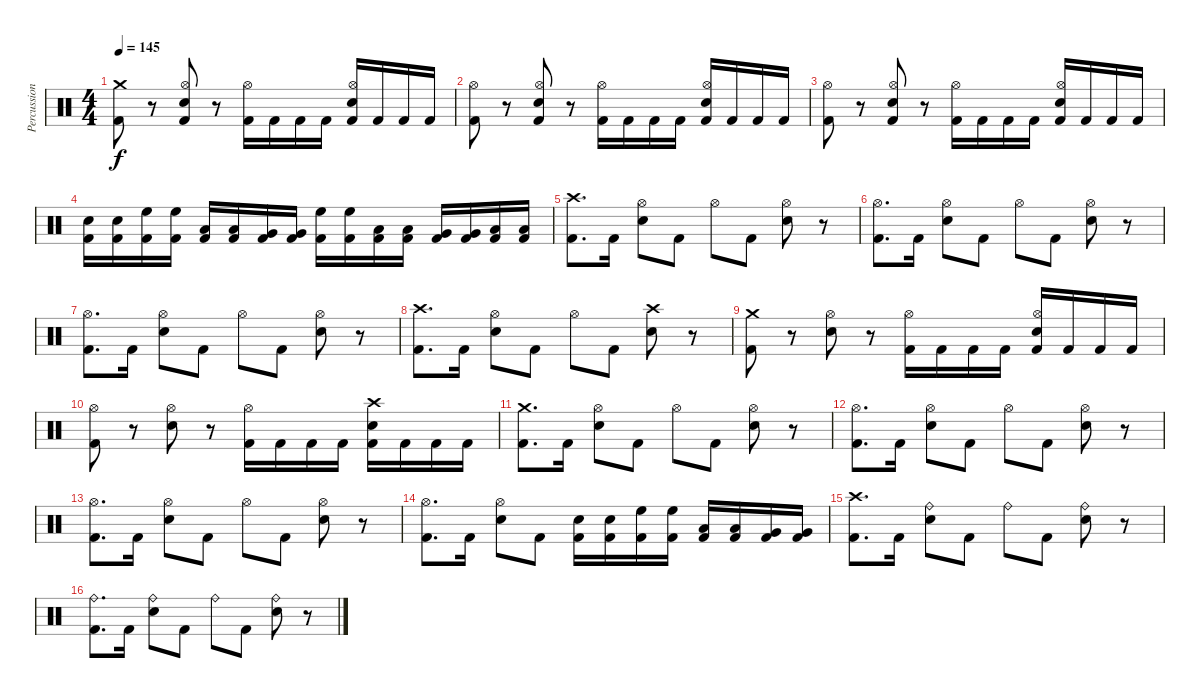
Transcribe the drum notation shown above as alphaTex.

\track ("Percussion" "Percussion") {instrument percussion}
\staff {score}
\articulation defaults
\ts (4 4)
\tempo 145
\clef neutral
\ks c
("Crash medium (hit)" "Kick (hit) 2").8{dy f} r.8 ("Hi-Hat (open)" "Snare (hit) 2" "Kick (hit) 2").8 r.8 ("Hi-Hat (open)" "Kick (hit) 2").16 "Kick (hit) 2".16 "Kick (hit) 2".16 "Kick (hit) 2".16 ("Hi-Hat (open)" "Snare (hit) 2" "Kick (hit) 2").16 "Kick (hit) 2".16 "Kick (hit) 2".16 "Kick (hit) 2".16 |
("Hi-Hat (open)" "Kick (hit) 2").8 r.8 ("Hi-Hat (open)" "Snare (hit) 2" "Kick (hit) 2").8 r.8 ("Hi-Hat (open)" "Kick (hit) 2").16 "Kick (hit) 2".16 "Kick (hit) 2".16 "Kick (hit) 2".16 ("Hi-Hat (open)" "Snare (hit) 2" "Kick (hit) 2").16 "Kick (hit) 2".16 "Kick (hit) 2".16 "Kick (hit) 2".16 |
("Hi-Hat (open)" "Kick (hit) 2").8 r.8 ("Hi-Hat (open)" "Snare (hit) 2" "Kick (hit) 2").8 r.8 ("Hi-Hat (open)" "Kick (hit) 2").16 "Kick (hit) 2".16 "Kick (hit) 2".16 "Kick (hit) 2".16 ("Hi-Hat (open)" "Snare (hit) 2" "Kick (hit) 2").16 "Kick (hit) 2".16 "Kick (hit) 2".16 "Kick (hit) 2".16 |
("Snare (hit) 2" "Kick (hit) 2").16 ("Snare (hit) 2" "Kick (hit) 2").16 ("High Floor Tom (hit)" "Kick (hit) 2").16 ("High Floor Tom (hit)" "Kick (hit) 2").16 ("Low Tom (hit)" "Kick (hit) 2").16 ("Low Tom (hit)" "Kick (hit) 2").16 ("Very Low Tom (hit)" "Kick (hit) 2").16 ("Very Low Tom (hit)" "Kick (hit) 2").16 ("High Floor Tom (hit)" "Kick (hit) 2").16 ("High Floor Tom (hit)" "Kick (hit) 2").16 ("Low Tom (hit)" "Kick (hit) 2").16 ("Low Tom (hit)" "Kick (hit) 2").16 ("Very Low Tom (hit)" "Kick (hit) 2").16 ("Very Low Tom (hit)" "Kick (hit) 2").16 ("Low Floor Tom (hit)" "Kick (hit) 2").16 ("Low Floor Tom (hit)" "Kick (hit) 2").16 |
("Crash high (hit)" "Kick (hit) 2").8{d} "Kick (hit) 2".16 ("Hi-Hat (open)" "Snare (hit) 2").8 "Kick (hit) 2".8 "Hi-Hat (open)".8 "Kick (hit) 2".8 ("Hi-Hat (open)" "Snare (hit) 2").8 r.8 |
("Hi-Hat (open)" "Kick (hit) 2").8{d} "Kick (hit) 2".16 ("Hi-Hat (open)" "Snare (hit) 2").8 "Kick (hit) 2".8 "Hi-Hat (open)".8 "Kick (hit) 2".8 ("Hi-Hat (open)" "Snare (hit) 2").8 r.8 |
("Hi-Hat (open)" "Kick (hit) 2").8{d} "Kick (hit) 2".16 ("Hi-Hat (open)" "Snare (hit) 2").8 "Kick (hit) 2".8 "Hi-Hat (open)".8 "Kick (hit) 2".8 ("Hi-Hat (open)" "Snare (hit) 2").8 r.8 |
("Crash high (hit)" "Kick (hit) 2").8{d} "Kick (hit) 2".16 ("Hi-Hat (open)" "Snare (hit) 2").8 "Kick (hit) 2".8 "Hi-Hat (open)".8 "Kick (hit) 2".8 ("Crash high (hit)" "Snare (hit) 2").8 r.8 |
("Crash medium (hit)" "Kick (hit) 2").8 r.8 ("Hi-Hat (open)" "Snare (hit) 2").8 r.8 ("Hi-Hat (open)" "Kick (hit) 2").16 "Kick (hit) 2".16 "Kick (hit) 2".16 "Kick (hit) 2".16 ("Hi-Hat (open)" "Snare (hit) 2" "Kick (hit) 2").16 "Kick (hit) 2".16 "Kick (hit) 2".16 "Kick (hit) 2".16 |
("Hi-Hat (open)" "Kick (hit) 2").8 r.8 ("Hi-Hat (open)" "Snare (hit) 2").8 r.8 ("Hi-Hat (open)" "Kick (hit) 2").16 "Kick (hit) 2".16 "Kick (hit) 2".16 "Kick (hit) 2".16 ("Crash high (hit)" "Snare (hit) 2" "Kick (hit) 2").16 "Kick (hit) 2".16 "Kick (hit) 2".16 "Kick (hit) 2".16 |
("Crash medium (hit)" "Kick (hit) 2").8{d} "Kick (hit) 2".16 ("Hi-Hat (open)" "Snare (hit) 2").8 "Kick (hit) 2".8 "Hi-Hat (open)".8 "Kick (hit) 2".8 ("Hi-Hat (open)" "Snare (hit) 2").8 r.8 |
("Hi-Hat (open)" "Kick (hit) 2").8{d} "Kick (hit) 2".16 ("Hi-Hat (open)" "Snare (hit) 2").8 "Kick (hit) 2".8 "Hi-Hat (open)".8 "Kick (hit) 2".8 ("Hi-Hat (open)" "Snare (hit) 2").8 r.8 |
("Hi-Hat (open)" "Kick (hit) 2").8{d} "Kick (hit) 2".16 ("Hi-Hat (open)" "Snare (hit) 2").8 "Kick (hit) 2".8 "Hi-Hat (open)".8 "Kick (hit) 2".8 ("Hi-Hat (open)" "Snare (hit) 2").8 r.8 |
("Hi-Hat (open)" "Kick (hit) 2").8{d} "Kick (hit) 2".16 ("Hi-Hat (open)" "Snare (hit) 2").8 "Kick (hit) 2".8 ("Snare (hit) 2" "Kick (hit) 2").16 ("Snare (hit) 2" "Kick (hit) 2").16 ("High Floor Tom (hit)" "Kick (hit) 2").16 ("High Floor Tom (hit)" "Kick (hit) 2").16 ("Low Tom (hit)" "Kick (hit) 2").16 ("Low Tom (hit)" "Kick (hit) 2").16 ("Very Low Tom (hit)" "Kick (hit) 2").16 ("Very Low Tom (hit)" "Kick (hit) 2").16 |
("Crash high (hit)" "Kick (hit) 2").8{d} "Kick (hit) 2".16 ("Ride (bell)" "Snare (hit) 2").8 "Kick (hit) 2".8 "Ride (bell)".8 "Kick (hit) 2".8 ("Ride (bell)" "Snare (hit) 2").8 r.8 |
("Ride (bell)" "Kick (hit) 2").8{d} "Kick (hit) 2".16 ("Ride (bell)" "Snare (hit) 2").8 "Kick (hit) 2".8 "Ride (bell)".8 "Kick (hit) 2".8 ("Ride (bell)" "Snare (hit) 2").8 r.8
